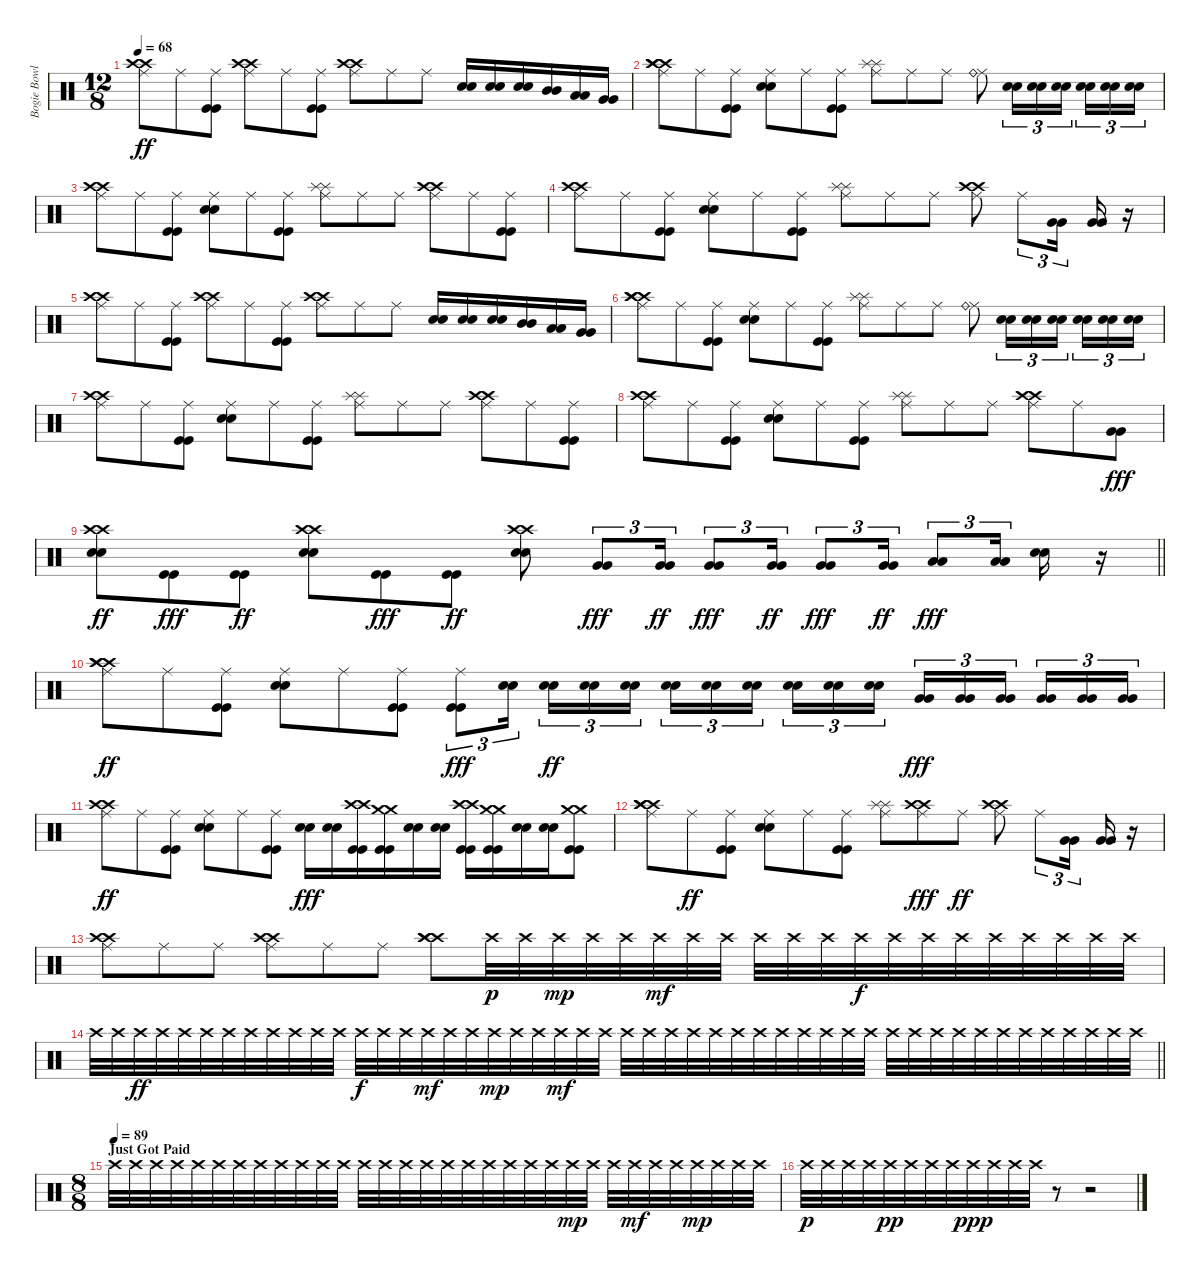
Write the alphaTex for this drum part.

\track ("Bogie Bowles Drums" "Bogie Bowl") {instrument percussion}
\staff {score}
\articulation defaults
\ts (12 8)
\tempo 68
\clef neutral
\ks c
("Ride (middle)" "Crash high (hit)" "Crash high (hit)").8{dy ff} "Ride (middle)".8 ("Ride (middle)" "Kick (hit)" "Kick (hit)").8 ("Ride (middle)" "Crash high (hit)" "Crash high (hit)").8 "Ride (middle)".8 ("Ride (middle)" "Kick (hit)" "Kick (hit)").8 ("Ride (middle)" "Crash high (hit)" "Crash high (hit)").8 "Ride (middle)".8 "Ride (middle)".8 ("Snare (hit) 2" "Snare (hit) 2").16 ("Snare (hit) 2" "Snare (hit) 2").16 ("Snare (hit) 2" "Snare (hit) 2").16 ("Mid Tom (hit)" "Mid Tom (hit)").16 ("Low Tom (hit)" "Low Tom (hit)").16 ("Very Low Tom (hit)" "Very Low Tom (hit)").16 |
("Ride (middle)" "Crash high (hit)" "Crash high (hit)" "Crash high (hit)").8 "Ride (middle)".8 ("Ride (middle)" "Kick (hit)" "Kick (hit)").8 ("Ride (middle)" "Snare (hit) 2" "Snare (hit) 2").8 "Ride (middle)".8 ("Ride (middle)" "Kick (hit)" "Kick (hit)").8 ("Ride (middle)" "Splash (hit)" "Splash (hit)").8 "Ride (middle)".8 "Ride (middle)".8 ("Ride (middle)" "Ride (bell)").8 ("Snare (hit) 2" "Snare (hit) 2").16{tu (3 2)} ("Snare (hit) 2" "Snare (hit) 2").16{tu (3 2)} ("Snare (hit) 2" "Snare (hit) 2").16{tu (3 2) beam splitsecondary} ("Snare (hit) 2" "Snare (hit) 2").16{tu (3 2)} ("Snare (hit) 2" "Snare (hit) 2").16{tu (3 2)} ("Snare (hit) 2" "Snare (hit) 2").16{tu (3 2)} |
("Ride (middle)" "Crash high (hit)" "Crash high (hit)").8 "Ride (middle)".8 ("Ride (middle)" "Kick (hit)" "Kick (hit)").8 ("Ride (middle)" "Snare (hit) 2" "Snare (hit) 2").8 "Ride (middle)".8 ("Ride (middle)" "Kick (hit)" "Kick (hit)").8 ("Ride (middle)" "Splash (hit)" "Splash (hit)").8 "Ride (middle)".8 "Ride (middle)".8 ("Ride (middle)" "Crash high (hit)" "Crash high (hit)").8 "Ride (middle)".8 ("Ride (middle)" "Kick (hit)" "Kick (hit)").8 |
("Ride (middle)" "Crash high (hit)" "Crash high (hit)").8 "Ride (middle)".8 ("Ride (middle)" "Kick (hit)" "Kick (hit)").8 ("Ride (middle)" "Snare (hit) 2" "Snare (hit) 2").8 "Ride (middle)".8 ("Ride (middle)" "Kick (hit)" "Kick (hit)").8 ("Ride (middle)" "Splash (hit)" "Splash (hit)").8 "Ride (middle)".8 "Ride (middle)".8 ("Ride (middle)" "Crash high (hit)" "Crash high (hit)").8 "Ride (middle)".8{tu (3 2)} ("Very Low Tom (hit)" "Very Low Tom (hit)").16{tu (3 2)} ("Very Low Tom (hit)" "Very Low Tom (hit)").16 r.16 |
("Ride (middle)" "Crash high (hit)" "Crash high (hit)").8 "Ride (middle)".8 ("Ride (middle)" "Kick (hit)" "Kick (hit)").8 ("Ride (middle)" "Crash high (hit)" "Crash high (hit)").8 "Ride (middle)".8 ("Ride (middle)" "Kick (hit)" "Kick (hit)").8 ("Ride (middle)" "Crash high (hit)" "Crash high (hit)").8 "Ride (middle)".8 "Ride (middle)".8 ("Snare (hit) 2" "Snare (hit) 2").16 ("Snare (hit) 2" "Snare (hit) 2").16 ("Snare (hit) 2" "Snare (hit) 2").16 ("Mid Tom (hit)" "Mid Tom (hit)").16 ("Low Tom (hit)" "Low Tom (hit)").16 ("Very Low Tom (hit)" "Very Low Tom (hit)").16 |
("Ride (middle)" "Crash high (hit)" "Crash high (hit)" "Crash high (hit)").8 "Ride (middle)".8 ("Ride (middle)" "Kick (hit)" "Kick (hit)").8 ("Ride (middle)" "Snare (hit) 2" "Snare (hit) 2").8 "Ride (middle)".8 ("Ride (middle)" "Kick (hit)" "Kick (hit)").8 ("Ride (middle)" "Splash (hit)" "Splash (hit)").8 "Ride (middle)".8 "Ride (middle)".8 ("Ride (middle)" "Ride (bell)").8 ("Snare (hit) 2" "Snare (hit) 2").16{tu (3 2)} ("Snare (hit) 2" "Snare (hit) 2").16{tu (3 2)} ("Snare (hit) 2" "Snare (hit) 2").16{tu (3 2) beam splitsecondary} ("Snare (hit) 2" "Snare (hit) 2").16{tu (3 2)} ("Snare (hit) 2" "Snare (hit) 2").16{tu (3 2)} ("Snare (hit) 2" "Snare (hit) 2").16{tu (3 2)} |
("Ride (middle)" "Crash high (hit)" "Crash high (hit)").8 "Ride (middle)".8 ("Ride (middle)" "Kick (hit)" "Kick (hit)").8 ("Ride (middle)" "Snare (hit) 2" "Snare (hit) 2").8 "Ride (middle)".8 ("Ride (middle)" "Kick (hit)" "Kick (hit)").8 ("Ride (middle)" "Splash (hit)" "Splash (hit)").8 "Ride (middle)".8 "Ride (middle)".8 ("Ride (middle)" "Crash high (hit)" "Crash high (hit)").8 "Ride (middle)".8 ("Ride (middle)" "Kick (hit)" "Kick (hit)").8 |
("Ride (middle)" "Crash high (hit)" "Crash high (hit)").8 "Ride (middle)".8 ("Ride (middle)" "Kick (hit)" "Kick (hit)").8 ("Ride (middle)" "Snare (hit) 2" "Snare (hit) 2").8 "Ride (middle)".8 ("Ride (middle)" "Kick (hit)" "Kick (hit)").8 ("Ride (middle)" "Splash (hit)" "Splash (hit)").8 "Ride (middle)".8 "Ride (middle)".8 ("Ride (middle)" "Crash high (hit)" "Crash high (hit)").8 "Ride (middle)".8 ("Very Low Tom (hit)" "Very Low Tom (hit)").8{dy fff} |
\barLineRight lightlight
("Crash high (hit)" "Crash high (hit)" "Snare (hit) 2" "Snare (hit) 2").8{dy ff} ("Kick (hit)" "Kick (hit)").8{dy fff} ("Kick (hit)" "Kick (hit)").8{dy ff} ("Crash high (hit)" "Crash high (hit)" "Snare (hit) 2" "Snare (hit) 2").8 ("Kick (hit)" "Kick (hit)").8{dy fff} ("Kick (hit)" "Kick (hit)").8{dy ff} ("Crash high (hit)" "Crash high (hit)" "Snare (hit) 2" "Snare (hit) 2").8 ("Very Low Tom (hit)" "Very Low Tom (hit)").8{tu (3 2) dy fff} ("Very Low Tom (hit)" "Very Low Tom (hit)").16{tu (3 2) dy ff} ("Very Low Tom (hit)" "Very Low Tom (hit)").8{tu (3 2) dy fff} ("Very Low Tom (hit)" "Very Low Tom (hit)").16{tu (3 2) dy ff} ("Very Low Tom (hit)" "Very Low Tom (hit)").8{tu (3 2) dy fff} ("Very Low Tom (hit)" "Very Low Tom (hit)").16{tu (3 2) dy ff} ("Low Floor Tom (hit)" "Low Floor Tom (hit)").8{tu (3 2) dy fff} ("Low Floor Tom (hit)" "Low Floor Tom (hit)").16{tu (3 2)} ("Snare (hit) 2" "Snare (hit) 2").16 r.16 |
("Ride (middle)" "Crash high (hit)" "Crash high (hit)" "Crash high (hit)").8{dy ff} "Ride (middle)".8 ("Ride (middle)" "Kick (hit)" "Kick (hit)").8 ("Ride (middle)" "Snare (hit) 2" "Snare (hit) 2").8 "Ride (middle)".8 ("Ride (middle)" "Kick (hit)" "Kick (hit)").8 ("Ride (middle)" "Kick (hit)" "Kick (hit)").8{tu (3 2) dy fff} ("Snare (hit) 2" "Snare (hit) 2").16{tu (3 2) beam splitsecondary} ("Snare (hit) 2" "Snare (hit) 2").16{tu (3 2) dy ff} ("Snare (hit) 2" "Snare (hit) 2").16{tu (3 2)} ("Snare (hit) 2" "Snare (hit) 2").16{tu (3 2) beam splitsecondary} ("Snare (hit) 2" "Snare (hit) 2").16{tu (3 2)} ("Snare (hit) 2" "Snare (hit) 2").16{tu (3 2)} ("Snare (hit) 2" "Snare (hit) 2").16{tu (3 2)} ("Snare (hit) 2" "Snare (hit) 2").16{tu (3 2)} ("Snare (hit) 2" "Snare (hit) 2").16{tu (3 2)} ("Snare (hit) 2" "Snare (hit) 2").16{tu (3 2) beam splitsecondary} ("Very Low Tom (hit)" "Very Low Tom (hit)").16{tu (3 2) dy fff} ("Very Low Tom (hit)" "Very Low Tom (hit)").16{tu (3 2)} ("Very Low Tom (hit)" "Very Low Tom (hit)").16{tu (3 2) beam splitsecondary} ("Very Low Tom (hit)" "Very Low Tom (hit)").16{tu (3 2)} ("Very Low Tom (hit)" "Very Low Tom (hit)").16{tu (3 2)} ("Very Low Tom (hit)" "Very Low Tom (hit)").16{tu (3 2)} |
("Ride (middle)" "Crash high (hit)" "Crash high (hit)").8{dy ff} "Ride (middle)".8 ("Ride (middle)" "Kick (hit)" "Kick (hit)").8 ("Ride (middle)" "Snare (hit) 2" "Snare (hit) 2").8 "Ride (middle)".8 ("Ride (middle)" "Kick (hit)" "Kick (hit)").8 ("Snare (hit) 2" "Snare (hit) 2").16{dy fff} ("Snare (hit) 2" "Snare (hit) 2").16 ("Crash high (hit)" "Crash high (hit)" "Kick (hit)" "Kick (hit)").16 ("Crash medium (hit)" "Crash medium (hit)" "Kick (hit)" "Kick (hit)").16 ("Snare (hit) 2" "Snare (hit) 2").16 ("Snare (hit) 2" "Snare (hit) 2").16 ("Crash high (hit)" "Crash high (hit)" "Kick (hit)" "Kick (hit)").16 ("Crash medium (hit)" "Crash medium (hit)" "Kick (hit)" "Kick (hit)").16 ("Snare (hit) 2" "Snare (hit) 2").16 ("Snare (hit) 2" "Snare (hit) 2").16 ("Crash medium (hit)" "Crash medium (hit)" "Kick (hit)" "Kick (hit)").8 |
("Ride (middle)" "Crash high (hit)" "Crash high (hit)" "Crash high (hit)").8 "Ride (middle)".8{dy ff} ("Ride (middle)" "Kick (hit)" "Kick (hit)").8 ("Ride (middle)" "Snare (hit) 2" "Snare (hit) 2").8 "Ride (middle)".8 ("Ride (middle)" "Kick (hit)" "Kick (hit)").8 ("Ride (middle)" "Splash (hit)" "Splash (hit)").8 ("Ride (middle)" "Crash high (hit)" "Crash high (hit)").8{dy fff} "Ride (middle)".8{dy ff} ("Ride (middle)" "Crash high (hit)" "Crash high (hit)").8 "Ride (middle)".8{tu (3 2)} ("Very Low Tom (hit)" "Very Low Tom (hit)").16{tu (3 2)} ("Very Low Tom (hit)" "Very Low Tom (hit)").16 r.16 |
("Ride (middle)" "Crash high (hit)" "Crash high (hit)").8 "Ride (middle)".8 "Ride (middle)".8 ("Ride (middle)" "Crash high (hit)" "Crash high (hit)").8 "Ride (middle)".8 "Ride (middle)".8 ("Crash high (hit)" "Crash high (hit)" "Crash high (hit)").8 "Crash high (hit)".32{dy p} "Crash high (hit)".32 "Crash high (hit)".32{dy mp} "Crash high (hit)".32 "Crash high (hit)".32 "Crash high (hit)".32{dy mf} "Crash high (hit)".32 "Crash high (hit)".32 "Crash high (hit)".32 "Crash high (hit)".32 "Crash high (hit)".32 "Crash high (hit)".32{dy f} "Crash high (hit)".32 "Crash high (hit)".32 "Crash high (hit)".32 "Crash high (hit)".32 "Crash high (hit)".32 "Crash high (hit)".32 "Crash high (hit)".32 "Crash high (hit)".32 |
\barLineRight lightlight "Crash high (hit)".32 "Crash high (hit)".32 "Crash high (hit)".32{dy ff} "Crash high (hit)".32 "Crash high (hit)".32 "Crash high (hit)".32 "Crash high (hit)".32 "Crash high (hit)".32 "Crash high (hit)".32 "Crash high (hit)".32 "Crash high (hit)".32 "Crash high (hit)".32 "Crash high (hit)".32{dy f} "Crash high (hit)".32 "Crash high (hit)".32 "Crash high (hit)".32{dy mf} "Crash high (hit)".32 "Crash high (hit)".32 "Crash high (hit)".32{dy mp} "Crash high (hit)".32 "Crash high (hit)".32 "Crash high (hit)".32{dy mf} "Crash high (hit)".32 "Crash high (hit)".32 "Crash high (hit)".32 "Crash high (hit)".32 "Crash high (hit)".32 "Crash high (hit)".32 "Crash high (hit)".32 "Crash high (hit)".32 "Crash high (hit)".32 "Crash high (hit)".32 "Crash high (hit)".32 "Crash high (hit)".32 "Crash high (hit)".32 "Crash high (hit)".32 "Crash high (hit)".32 "Crash high (hit)".32 "Crash high (hit)".32 "Crash high (hit)".32 "Crash high (hit)".32 "Crash high (hit)".32 "Crash high (hit)".32 "Crash high (hit)".32 "Crash high (hit)".32 "Crash high (hit)".32 "Crash high (hit)".32 "Crash high (hit)".32
|
\ts (8 8)
\section ("" "Just Got Paid")
\tempo (89)
"Crash high (hit)".32 "Crash high (hit)".32 "Crash high (hit)".32 "Crash high (hit)".32 "Crash high (hit)".32 "Crash high (hit)".32 "Crash high (hit)".32 "Crash high (hit)".32 "Crash high (hit)".32 "Crash high (hit)".32 "Crash high (hit)".32 "Crash high (hit)".32 "Crash high (hit)".32 "Crash high (hit)".32 "Crash high (hit)".32 "Crash high (hit)".32 "Crash high (hit)".32 "Crash high (hit)".32 "Crash high (hit)".32 "Crash high (hit)".32 "Crash high (hit)".32 "Crash high (hit)".32 "Crash high (hit)".32{dy mp} "Crash high (hit)".32 "Crash high (hit)".32 "Crash high (hit)".32{dy mf} "Crash high (hit)".32 "Crash high (hit)".32 "Crash high (hit)".32{dy mp} "Crash high (hit)".32 "Crash high (hit)".32 "Crash high (hit)".32 |
"Crash high (hit)".32{dy p} "Crash high (hit)".32 "Crash high (hit)".32 "Crash high (hit)".32 "Crash high (hit)".32{dy pp} "Crash high (hit)".32 "Crash high (hit)".32 "Crash high (hit)".32 "Crash high (hit)".32{dy ppp} "Crash high (hit)".32 "Crash high (hit)".32 "Crash high (hit)".32 r.8 r.2
